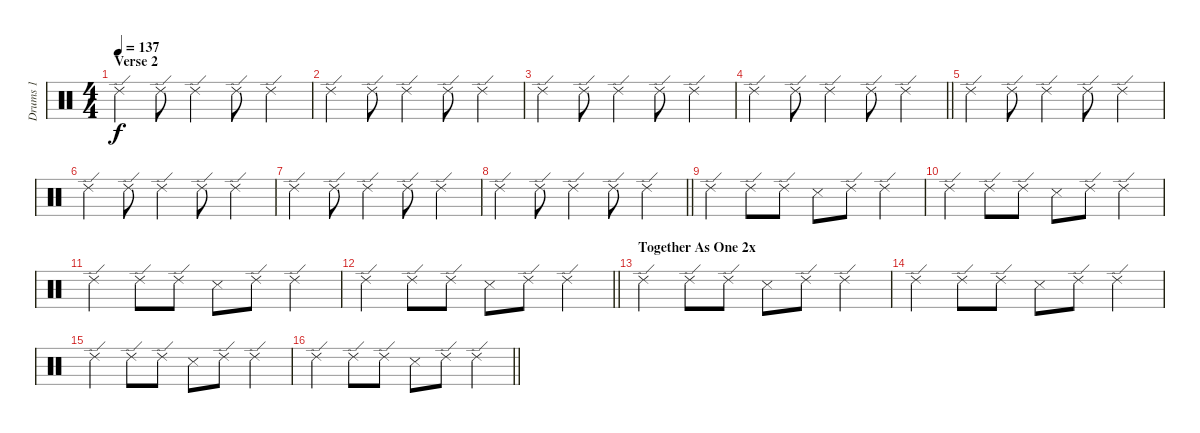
\track ("Drums 1" "Drums 1") {instrument percussion}
\staff {score}
\articulation defaults
\ts (4 4)
\section ("" "Verse 2")
\tempo 137
\clef neutral
\ks c "Ride (edge) 2".4{dy f} "Ride (edge) 2".8 "Ride (edge) 2".4 "Ride (edge) 2".8 "Ride (edge) 2".4
|
"Ride (edge) 2".4 "Ride (edge) 2".8 "Ride (edge) 2".4 "Ride (edge) 2".8 "Ride (edge) 2".4 |
"Ride (edge) 2".4 "Ride (edge) 2".8 "Ride (edge) 2".4 "Ride (edge) 2".8 "Ride (edge) 2".4 |
\barLineRight lightlight "Ride (edge) 2".4 "Ride (edge) 2".8 "Ride (edge) 2".4 "Ride (edge) 2".8 "Ride (edge) 2".4
|
"Ride (edge) 2".4 "Ride (edge) 2".8 "Ride (edge) 2".4 "Ride (edge) 2".8 "Ride (edge) 2".4 |
"Ride (edge) 2".4 "Ride (edge) 2".8 "Ride (edge) 2".4 "Ride (edge) 2".8 "Ride (edge) 2".4 |
"Ride (edge) 2".4 "Ride (edge) 2".8 "Ride (edge) 2".4 "Ride (edge) 2".8 "Ride (edge) 2".4 |
\barLineRight lightlight "Ride (edge) 2".4 "Ride (edge) 2".8 "Ride (edge) 2".4 "Ride (edge) 2".8 "Ride (edge) 2".4
|
"Ride (edge) 2".4 "Ride (edge) 2".8 "Ride (edge) 2".8 "Snare (side stick) 3".8 "Ride (edge) 2".8 "Ride (edge) 2".4 |
"Ride (edge) 2".4 "Ride (edge) 2".8 "Ride (edge) 2".8 "Snare (side stick) 3".8 "Ride (edge) 2".8 "Ride (edge) 2".4 |
"Ride (edge) 2".4 "Ride (edge) 2".8 "Ride (edge) 2".8 "Snare (side stick) 3".8 "Ride (edge) 2".8 "Ride (edge) 2".4 |
\barLineRight lightlight "Ride (edge) 2".4 "Ride (edge) 2".8 "Ride (edge) 2".8 "Snare (side stick) 3".8 "Ride (edge) 2".8 "Ride (edge) 2".4
|
\section ("" "Together As One 2x")
"Ride (edge) 2".4 "Ride (edge) 2".8 "Ride (edge) 2".8 "Snare (side stick) 3".8 "Ride (edge) 2".8 "Ride (edge) 2".4 |
"Ride (edge) 2".4 "Ride (edge) 2".8 "Ride (edge) 2".8 "Snare (side stick) 3".8 "Ride (edge) 2".8 "Ride (edge) 2".4 |
"Ride (edge) 2".4 "Ride (edge) 2".8 "Ride (edge) 2".8 "Snare (side stick) 3".8 "Ride (edge) 2".8 "Ride (edge) 2".4 |
\barLineRight lightlight "Ride (edge) 2".4 "Ride (edge) 2".8 "Ride (edge) 2".8 "Snare (side stick) 3".8 "Ride (edge) 2".8 "Ride (edge) 2".4
